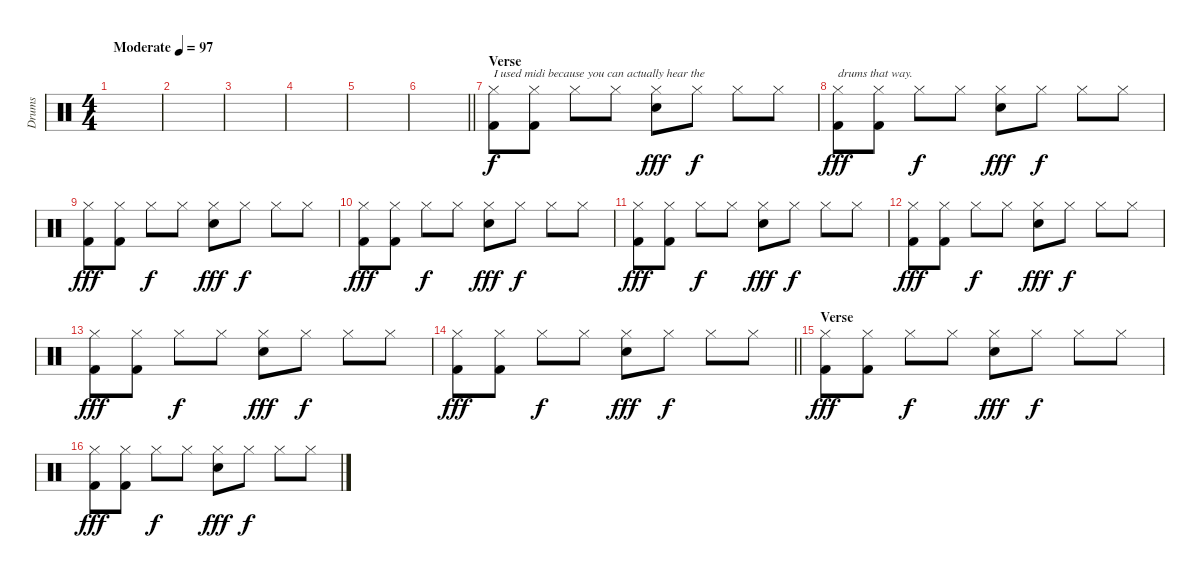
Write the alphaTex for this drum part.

\track ("Drums" "Drums") {instrument percussion}
\staff {score}
\articulation defaults
\ts (4 4)
\tempo (97 "Moderate")
\clef neutral
\ks c
|
|
|
|
|
\barLineRight lightlight
|
\section ("" "Verse")
("Hi-Hat (closed)" "Kick (hit) 2").8{txt "I used midi because you can actually hear the "} ("Hi-Hat (closed)" "Kick (hit) 2").8 "Hi-Hat (closed)".8{dy f} "Hi-Hat (closed)".8 ("Hi-Hat (closed)" "Electric Snare (hit)").8{dy fff} "Hi-Hat (closed)".8{dy f} "Hi-Hat (closed)".8 "Hi-Hat (closed)".8 |
("Hi-Hat (closed)" "Kick (hit) 2").8{txt "drums that way." dy fff} ("Hi-Hat (closed)" "Kick (hit) 2").8 "Hi-Hat (closed)".8{dy f} "Hi-Hat (closed)".8 ("Hi-Hat (closed)" "Electric Snare (hit)").8{dy fff} "Hi-Hat (closed)".8{dy f} "Hi-Hat (closed)".8 "Hi-Hat (closed)".8 |
("Hi-Hat (closed)" "Kick (hit) 2").8{dy fff} ("Hi-Hat (closed)" "Kick (hit) 2").8 "Hi-Hat (closed)".8{dy f} "Hi-Hat (closed)".8 ("Hi-Hat (closed)" "Electric Snare (hit)").8{dy fff} "Hi-Hat (closed)".8{dy f} "Hi-Hat (closed)".8 "Hi-Hat (closed)".8 |
("Hi-Hat (closed)" "Kick (hit) 2").8{dy fff} ("Hi-Hat (closed)" "Kick (hit) 2").8 "Hi-Hat (closed)".8{dy f} "Hi-Hat (closed)".8 ("Hi-Hat (closed)" "Electric Snare (hit)").8{dy fff} "Hi-Hat (closed)".8{dy f} "Hi-Hat (closed)".8 "Hi-Hat (closed)".8 |
("Hi-Hat (closed)" "Kick (hit) 2").8{dy fff} ("Hi-Hat (closed)" "Kick (hit) 2").8 "Hi-Hat (closed)".8{dy f} "Hi-Hat (closed)".8 ("Hi-Hat (closed)" "Electric Snare (hit)").8{dy fff} "Hi-Hat (closed)".8{dy f} "Hi-Hat (closed)".8 "Hi-Hat (closed)".8 |
("Hi-Hat (closed)" "Kick (hit) 2").8{dy fff} ("Hi-Hat (closed)" "Kick (hit) 2").8 "Hi-Hat (closed)".8{dy f} "Hi-Hat (closed)".8 ("Hi-Hat (closed)" "Electric Snare (hit)").8{dy fff} "Hi-Hat (closed)".8{dy f} "Hi-Hat (closed)".8 "Hi-Hat (closed)".8 |
("Hi-Hat (closed)" "Kick (hit) 2").8{dy fff} ("Hi-Hat (closed)" "Kick (hit) 2").8 "Hi-Hat (closed)".8{dy f} "Hi-Hat (closed)".8 ("Hi-Hat (closed)" "Electric Snare (hit)").8{dy fff} "Hi-Hat (closed)".8{dy f} "Hi-Hat (closed)".8 "Hi-Hat (closed)".8 |
\barLineRight lightlight
("Hi-Hat (closed)" "Kick (hit) 2").8{dy fff} ("Hi-Hat (closed)" "Kick (hit) 2").8 "Hi-Hat (closed)".8{dy f} "Hi-Hat (closed)".8 ("Hi-Hat (closed)" "Electric Snare (hit)").8{dy fff} "Hi-Hat (closed)".8{dy f} "Hi-Hat (closed)".8 "Hi-Hat (closed)".8 |
\section ("" "Verse")
("Hi-Hat (closed)" "Kick (hit) 2").8{dy fff} ("Hi-Hat (closed)" "Kick (hit) 2").8 "Hi-Hat (closed)".8{dy f} "Hi-Hat (closed)".8 ("Hi-Hat (closed)" "Electric Snare (hit)").8{dy fff} "Hi-Hat (closed)".8{dy f} "Hi-Hat (closed)".8 "Hi-Hat (closed)".8 |
("Hi-Hat (closed)" "Kick (hit) 2").8{dy fff} ("Hi-Hat (closed)" "Kick (hit) 2").8 "Hi-Hat (closed)".8{dy f} "Hi-Hat (closed)".8 ("Hi-Hat (closed)" "Electric Snare (hit)").8{dy fff} "Hi-Hat (closed)".8{dy f} "Hi-Hat (closed)".8 "Hi-Hat (closed)".8
